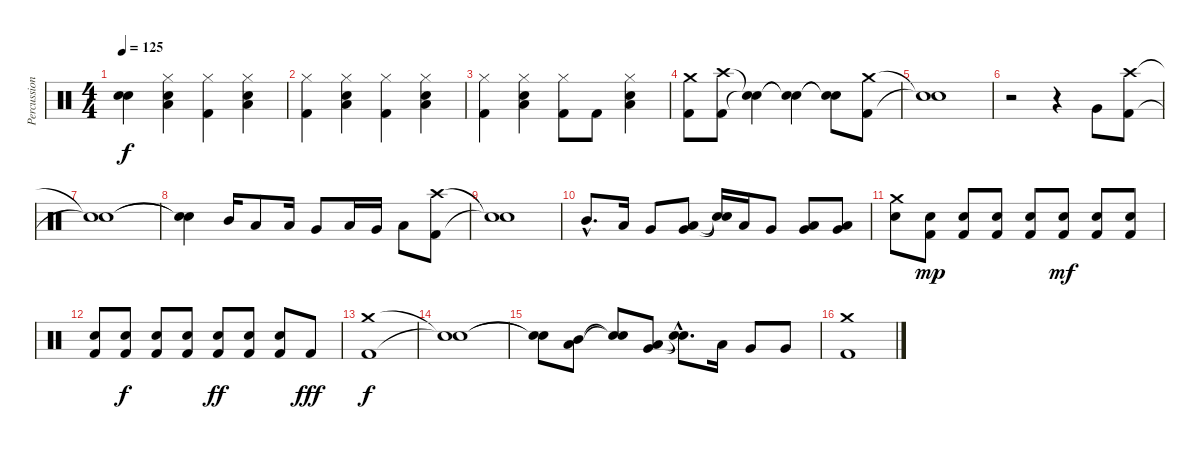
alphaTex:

\track ("Percussion" "Percussion") {instrument percussion}
\staff {score}
\articulation defaults
\ts (4 4)
\tempo 125
\clef neutral
\ks c
("Snare (hit)"{t} "Snare (hit)"{t}).4{dy f} ("Hi-Hat (closed)" "Low Floor Tom (hit)" "Metronome (bell)").4 ("Hi-Hat (closed)" "Kick (hit) 2").4 ("Hi-Hat (closed)" "Low Floor Tom (hit)" "Metronome (bell)").4 |
("Hi-Hat (closed)" "Kick (hit) 2").4 ("Hi-Hat (closed)" "Low Floor Tom (hit)" "Metronome (bell)").4 ("Hi-Hat (closed)" "Kick (hit) 2").4 ("Hi-Hat (closed)" "Low Floor Tom (hit)" "Metronome (bell)").4 |
("Hi-Hat (closed)" "Kick (hit) 2").4 ("Hi-Hat (closed)" "Low Floor Tom (hit)" "Metronome (bell)").4 ("Hi-Hat (closed)" "Kick (hit) 2").8 "Kick (hit) 2".8 ("Hi-Hat (closed)" "Low Floor Tom (hit)" "Metronome (bell)").4 |
("Crash medium (hit)" "Kick (hit) 2").8 ("Crash high (hit)" "Kick (hit) 2").8 ("Snare (hit)"{t} "Snare (hit)"{t}).4 ("Snare (hit)"{t} "Snare (hit)"{t}).4 ("Snare (hit)"{t} "Snare (hit)"{t}).8 ("Crash medium (hit)" "Kick (hit) 2").8 |
("Snare (hit)"{t} "Snare (hit)"{t}).1 |
r.2 r.4 "Very Low Tom (hit)".8 ("Crash high (hit)" "Kick (hit) 2").8 |
("Snare (hit)"{t} "Snare (hit)"{t}).1 |
("Snare (hit)"{t} "Snare (hit)"{t}).4 "Mid Tom (hit)".16 "Low Tom (hit)".8 "Low Tom (hit)".16 "Very Low Tom (hit)".8 "Low Tom (hit)".16 "Very Low Tom (hit)".16 "Low Floor Tom (hit)".8 ("Crash high (hit)" "Kick (hit) 2").8 |
("Snare (hit)"{t} "Snare (hit)"{t}).1 |
"Mid Tom (hit)"{hac}.8{d} "Low Tom (hit)".16 "Very Low Tom (hit)".8 ("Very Low Tom (hit)" "Low Floor Tom (hit)").8 ("Snare (hit)"{t} "Snare (hit)"{t}).16 "Low Tom (hit)".16 "Very Low Tom (hit)".8 ("Very Low Tom (hit)" "Low Floor Tom (hit)").8 ("Very Low Tom (hit)" "Low Floor Tom (hit)").8 |
("Crash medium (hit)" "Electric Snare (hit)").8 ("Electric Snare (hit)" "Kick (hit) 2").8{dy mp} ("Electric Snare (hit)" "Kick (hit) 2").8 ("Electric Snare (hit)" "Kick (hit) 2").8 ("Electric Snare (hit)" "Kick (hit) 2").8 ("Electric Snare (hit)" "Kick (hit) 2").8{dy mf} ("Electric Snare (hit)" "Kick (hit) 2").8 ("Electric Snare (hit)" "Kick (hit) 2").8 |
("Electric Snare (hit)" "Kick (hit) 2").8 ("Electric Snare (hit)" "Kick (hit) 2").8{dy f} ("Electric Snare (hit)" "Kick (hit) 2").8 ("Electric Snare (hit)" "Kick (hit) 2").8 ("Electric Snare (hit)" "Kick (hit) 2").8{dy ff} ("Electric Snare (hit)" "Kick (hit) 2").8 ("Electric Snare (hit)" "Kick (hit) 2").8 "Kick (hit) 2".8{dy fff} |
("Crash medium (hit)" "Kick (hit) 2").1{dy f} |
("Snare (hit)"{t} "Snare (hit)"{t}).1 |
("Snare (hit)"{t} "Snare (hit)"{t}).8 ("Mid Tom (hit)" "Low Tom (hit)").8 ("Snare (hit)"{t} "Snare (hit)"{t}).8 ("Low Tom (hit)" "Very Low Tom (hit)").8 ("Snare (hit)"{hac t} "Snare (hit)"{hac t}).8{d} "Low Tom (hit)".16 "Very Low Tom (hit)".8 "Very Low Tom (hit)".8 |
("Crash medium (hit)" "Kick (hit) 2").1
